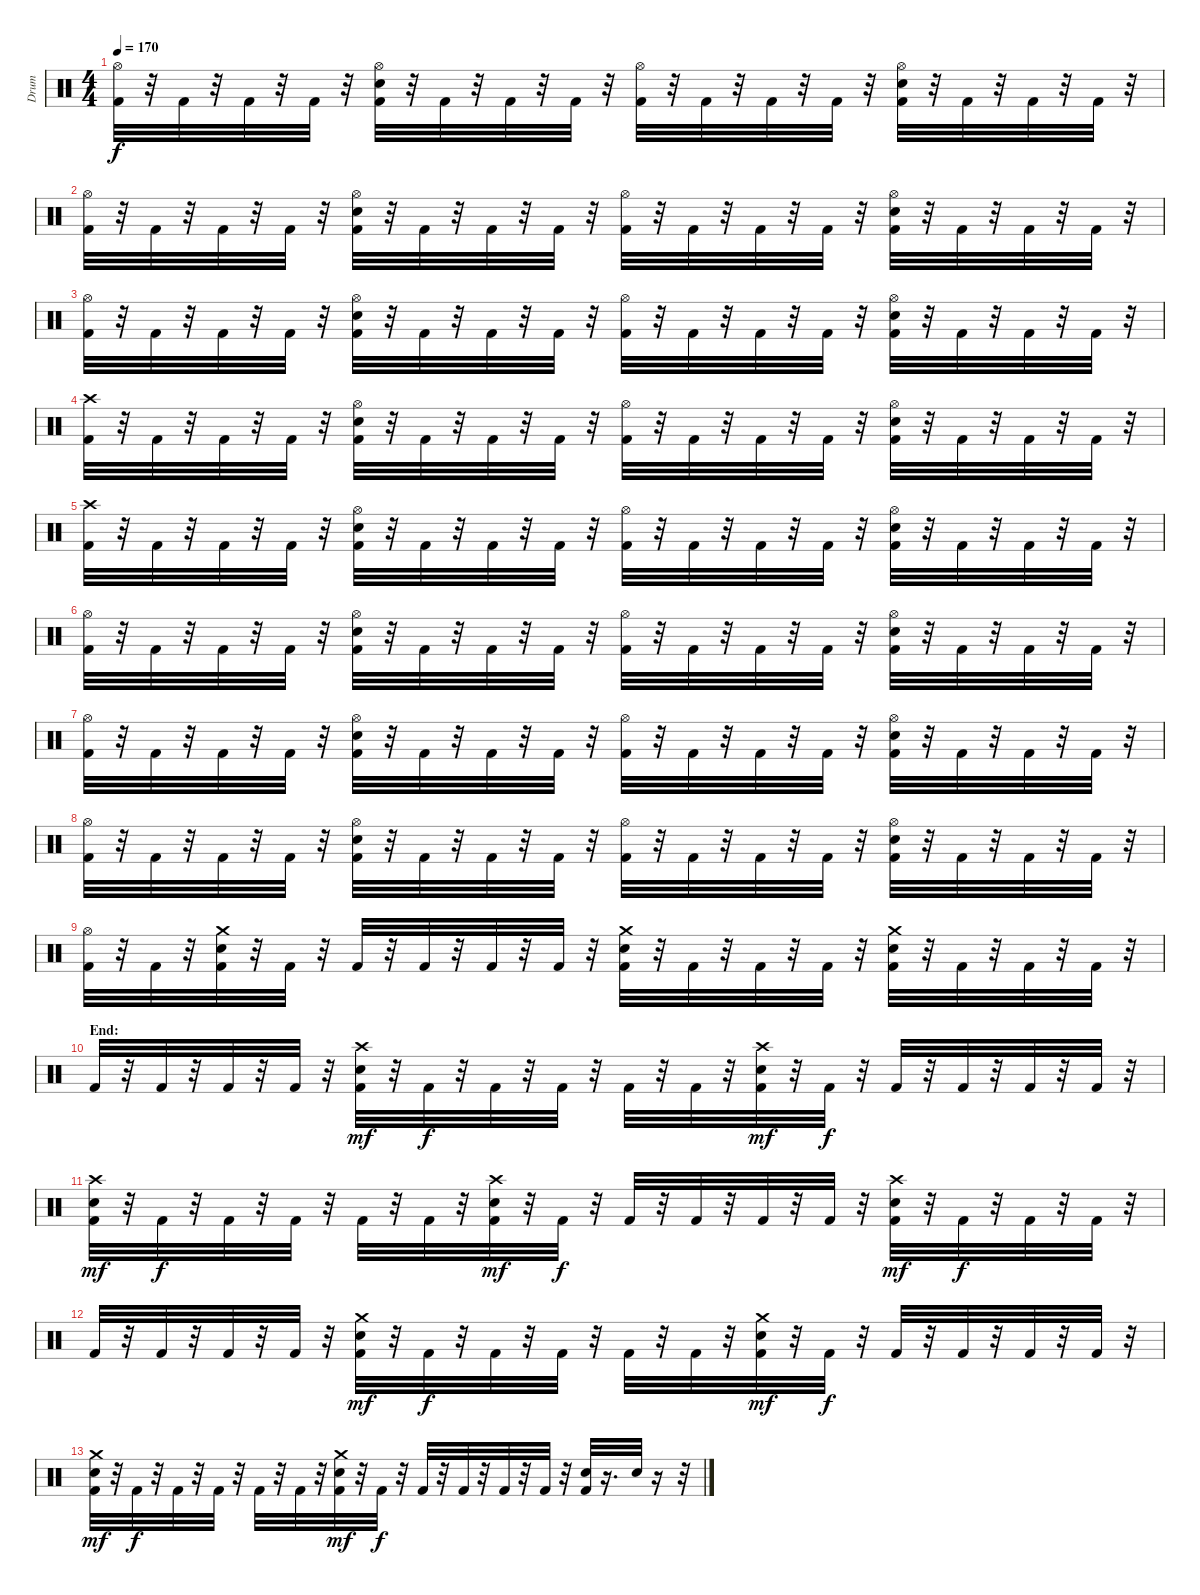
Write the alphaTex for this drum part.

\track ("Drum" "Drum") {instrument percussion}
\staff {score}
\articulation defaults
\ts (4 4)
\tempo 170
\clef neutral
\ks c
("Hi-Hat (open)" "Kick (hit) 2").32{dy f} r.32 "Kick (hit) 2".32 r.32 "Kick (hit) 2".32 r.32 "Kick (hit) 2".32 r.32 ("Snare (hit) 2" "Hi-Hat (open)" "Kick (hit) 2").32 r.32 "Kick (hit) 2".32 r.32 "Kick (hit) 2".32 r.32 "Kick (hit) 2".32 r.32 ("Hi-Hat (open)" "Kick (hit) 2").32 r.32 "Kick (hit) 2".32 r.32 "Kick (hit) 2".32 r.32 "Kick (hit) 2".32 r.32 ("Snare (hit) 2" "Hi-Hat (open)" "Kick (hit) 2").32 r.32 "Kick (hit) 2".32 r.32 "Kick (hit) 2".32 r.32 "Kick (hit) 2".32 r.32 |
("Hi-Hat (open)" "Kick (hit) 2").32 r.32 "Kick (hit) 2".32 r.32 "Kick (hit) 2".32 r.32 "Kick (hit) 2".32 r.32 ("Snare (hit) 2" "Hi-Hat (open)" "Kick (hit) 2").32 r.32 "Kick (hit) 2".32 r.32 "Kick (hit) 2".32 r.32 "Kick (hit) 2".32 r.32 ("Hi-Hat (open)" "Kick (hit) 2").32 r.32 "Kick (hit) 2".32 r.32 "Kick (hit) 2".32 r.32 "Kick (hit) 2".32 r.32 ("Snare (hit) 2" "Hi-Hat (open)" "Kick (hit) 2").32 r.32 "Kick (hit) 2".32 r.32 "Kick (hit) 2".32 r.32 "Kick (hit) 2".32 r.32 |
("Hi-Hat (open)" "Kick (hit) 2").32 r.32 "Kick (hit) 2".32 r.32 "Kick (hit) 2".32 r.32 "Kick (hit) 2".32 r.32 ("Hi-Hat (open)" "Snare (hit) 2" "Kick (hit) 2").32 r.32 "Kick (hit) 2".32 r.32 "Kick (hit) 2".32 r.32 "Kick (hit) 2".32 r.32 ("Hi-Hat (open)" "Kick (hit) 2").32 r.32 "Kick (hit) 2".32 r.32 "Kick (hit) 2".32 r.32 "Kick (hit) 2".32 r.32 ("Hi-Hat (open)" "Snare (hit) 2" "Kick (hit) 2").32 r.32 "Kick (hit) 2".32 r.32 "Kick (hit) 2".32 r.32 "Kick (hit) 2".32 r.32 |
("Crash high (hit)" "Kick (hit) 2").32 r.32 "Kick (hit) 2".32 r.32 "Kick (hit) 2".32 r.32 "Kick (hit) 2".32 r.32 ("Snare (hit) 2" "Hi-Hat (open)" "Kick (hit) 2").32 r.32 "Kick (hit) 2".32 r.32 "Kick (hit) 2".32 r.32 "Kick (hit) 2".32 r.32 ("Hi-Hat (open)" "Kick (hit) 2").32 r.32 "Kick (hit) 2".32 r.32 "Kick (hit) 2".32 r.32 "Kick (hit) 2".32 r.32 ("Snare (hit) 2" "Hi-Hat (open)" "Kick (hit) 2").32 r.32 "Kick (hit) 2".32 r.32 "Kick (hit) 2".32 r.32 "Kick (hit) 2".32 r.32 |
("Crash high (hit)" "Kick (hit) 2").32 r.32 "Kick (hit) 2".32 r.32 "Kick (hit) 2".32 r.32 "Kick (hit) 2".32 r.32 ("Hi-Hat (open)" "Snare (hit) 2" "Kick (hit) 2").32 r.32 "Kick (hit) 2".32 r.32 "Kick (hit) 2".32 r.32 "Kick (hit) 2".32 r.32 ("Hi-Hat (open)" "Kick (hit) 2").32 r.32 "Kick (hit) 2".32 r.32 "Kick (hit) 2".32 r.32 "Kick (hit) 2".32 r.32 ("Hi-Hat (open)" "Snare (hit) 2" "Kick (hit) 2").32 r.32 "Kick (hit) 2".32 r.32 "Kick (hit) 2".32 r.32 "Kick (hit) 2".32 r.32 |
("Hi-Hat (open)" "Kick (hit) 2").32 r.32 "Kick (hit) 2".32 r.32 "Kick (hit) 2".32 r.32 "Kick (hit) 2".32 r.32 ("Hi-Hat (open)" "Snare (hit) 2" "Kick (hit) 2").32 r.32 "Kick (hit) 2".32 r.32 "Kick (hit) 2".32 r.32 "Kick (hit) 2".32 r.32 ("Hi-Hat (open)" "Kick (hit) 2").32 r.32 "Kick (hit) 2".32 r.32 "Kick (hit) 2".32 r.32 "Kick (hit) 2".32 r.32 ("Hi-Hat (open)" "Snare (hit) 2" "Kick (hit) 2").32 r.32 "Kick (hit) 2".32 r.32 "Kick (hit) 2".32 r.32 "Kick (hit) 2".32 r.32 |
("Hi-Hat (open)" "Kick (hit) 2").32 r.32 "Kick (hit) 2".32 r.32 "Kick (hit) 2".32 r.32 "Kick (hit) 2".32 r.32 ("Snare (hit) 2" "Hi-Hat (open)" "Kick (hit) 2").32 r.32 "Kick (hit) 2".32 r.32 "Kick (hit) 2".32 r.32 "Kick (hit) 2".32 r.32 ("Hi-Hat (open)" "Kick (hit) 2").32 r.32 "Kick (hit) 2".32 r.32 "Kick (hit) 2".32 r.32 "Kick (hit) 2".32 r.32 ("Snare (hit) 2" "Hi-Hat (open)" "Kick (hit) 2").32 r.32 "Kick (hit) 2".32 r.32 "Kick (hit) 2".32 r.32 "Kick (hit) 2".32 r.32 |
("Hi-Hat (open)" "Kick (hit) 2").32 r.32 "Kick (hit) 2".32 r.32 "Kick (hit) 2".32 r.32 "Kick (hit) 2".32 r.32 ("Kick (hit) 2" "Snare (hit) 2" "Hi-Hat (open)").32 r.32 "Kick (hit) 2".32 r.32 "Kick (hit) 2".32 r.32 "Kick (hit) 2".32 r.32 ("Kick (hit) 2" "Hi-Hat (open)").32 r.32 "Kick (hit) 2".32 r.32 "Kick (hit) 2".32 r.32 "Kick (hit) 2".32 r.32 ("Kick (hit) 2" "Snare (hit) 2" "Hi-Hat (open)").32 r.32 "Kick (hit) 2".32 r.32 "Kick (hit) 2".32 r.32 "Kick (hit) 2".32 r.32 |
("Kick (hit) 2" "Hi-Hat (open)").32 r.32 "Kick (hit) 2".32 r.32 ("Crash medium (hit)" "Snare (hit) 2" "Kick (hit) 2").32 r.32 "Kick (hit) 2".32 r.32 "Kick (hit) 2".32 r.32 "Kick (hit) 2".32 r.32 "Kick (hit) 2".32 r.32 "Kick (hit) 2".32 r.32 ("Crash medium (hit)" "Snare (hit) 2" "Kick (hit) 2").32 r.32 "Kick (hit) 2".32 r.32 "Kick (hit) 2".32 r.32 "Kick (hit) 2".32 r.32 ("Crash medium (hit)" "Snare (hit) 2" "Kick (hit) 2").32 r.32 "Kick (hit) 2".32 r.32 "Kick (hit) 2".32 r.32 "Kick (hit) 2".32 r.32 |
\section ("" "End:")
"Kick (hit) 2".32 r.32 "Kick (hit) 2".32 r.32 "Kick (hit) 2".32 r.32 "Kick (hit) 2".32 r.32 ("Crash high (hit)" "Snare (hit) 2" "Kick (hit) 2").32{dy mf} r.32 "Kick (hit) 2".32{dy f} r.32 "Kick (hit) 2".32 r.32 "Kick (hit) 2".32 r.32 "Kick (hit) 2".32 r.32 "Kick (hit) 2".32 r.32 ("Crash high (hit)" "Snare (hit) 2" "Kick (hit) 2").32{dy mf} r.32 "Kick (hit) 2".32{dy f} r.32 "Kick (hit) 2".32 r.32 "Kick (hit) 2".32 r.32 "Kick (hit) 2".32 r.32 "Kick (hit) 2".32 r.32 |
("Crash high (hit)" "Snare (hit) 2" "Kick (hit) 2").32{dy mf} r.32 "Kick (hit) 2".32{dy f} r.32 "Kick (hit) 2".32 r.32 "Kick (hit) 2".32 r.32 "Kick (hit) 2".32 r.32 "Kick (hit) 2".32 r.32 ("Crash high (hit)" "Snare (hit) 2" "Kick (hit) 2").32{dy mf} r.32 "Kick (hit) 2".32{dy f} r.32 "Kick (hit) 2".32 r.32 "Kick (hit) 2".32 r.32 "Kick (hit) 2".32 r.32 "Kick (hit) 2".32 r.32 ("Crash high (hit)" "Snare (hit) 2" "Kick (hit) 2").32{dy mf} r.32 "Kick (hit) 2".32{dy f} r.32 "Kick (hit) 2".32 r.32 "Kick (hit) 2".32 r.32 |
"Kick (hit) 2".32 r.32 "Kick (hit) 2".32 r.32 "Kick (hit) 2".32 r.32 "Kick (hit) 2".32 r.32 ("Crash medium (hit)" "Kick (hit) 2" "Snare (hit) 2").32{dy mf} r.32 "Kick (hit) 2".32{dy f} r.32 "Kick (hit) 2".32 r.32 "Kick (hit) 2".32 r.32 "Kick (hit) 2".32 r.32 "Kick (hit) 2".32 r.32 ("Crash medium (hit)" "Kick (hit) 2" "Snare (hit) 2").32{dy mf} r.32 "Kick (hit) 2".32{dy f} r.32 "Kick (hit) 2".32 r.32 "Kick (hit) 2".32 r.32 "Kick (hit) 2".32 r.32 "Kick (hit) 2".32 r.32 |
("Crash medium (hit)" "Kick (hit) 2" "Snare (hit) 2").32{dy mf} r.32 "Kick (hit) 2".32{dy f} r.32 "Kick (hit) 2".32 r.32 "Kick (hit) 2".32 r.32 "Kick (hit) 2".32 r.32 "Kick (hit) 2".32 r.32 ("Crash medium (hit)" "Kick (hit) 2" "Snare (hit) 2").32{dy mf} r.32 "Kick (hit) 2".32{dy f} r.32 "Kick (hit) 2".32 r.32 "Kick (hit) 2".32 r.32 "Kick (hit) 2".32 r.32 "Kick (hit) 2".32 r.32 ("Kick (hit) 2" "Snare (hit) 2").32 r.16{d} "Snare (hit) 2".32 r.16 r.32
